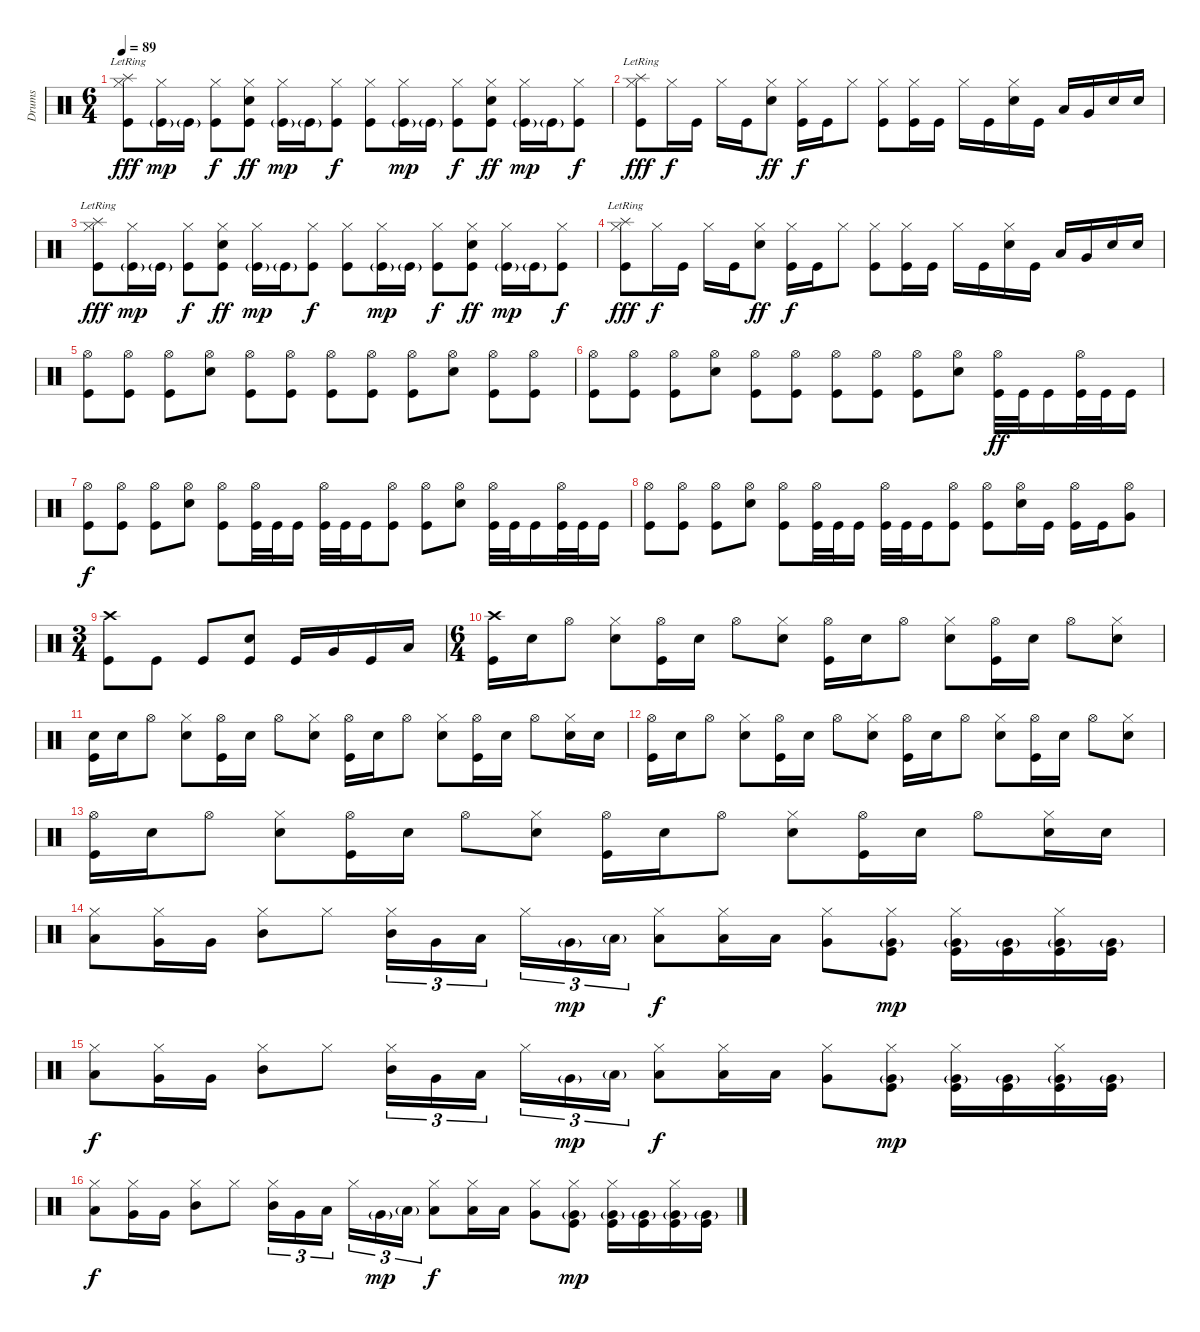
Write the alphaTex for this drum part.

\track ("Drums" "Drums") {instrument percussion}
\staff {score}
\articulation defaults
\ts (6 4)
\tempo 89
\clef neutral
\ks c
("Splash (hit)"{lr} "Hi-Hat (closed)" "Kick (hit)").8{dy fff} ("Hi-Hat (closed)" "Kick (hit)"{g}).16{dy mp} "Kick (hit)"{g}.16 ("Hi-Hat (closed)" "Kick (hit)").8{dy f} ("Hi-Hat (closed)" "Snare (hit) 2" "Kick (hit)").8{dy ff} ("Hi-Hat (closed)" "Kick (hit)"{g}).16{dy mp} "Kick (hit)"{g}.16 ("Hi-Hat (closed)" "Kick (hit)").8{dy f} ("Hi-Hat (closed)" "Kick (hit)").8 ("Hi-Hat (closed)" "Kick (hit)"{g}).16{dy mp} "Kick (hit)"{g}.16 ("Hi-Hat (closed)" "Kick (hit)").8{dy f} ("Hi-Hat (closed)" "Snare (hit) 2" "Kick (hit)").8{dy ff} ("Hi-Hat (closed)" "Kick (hit)"{g}).16{dy mp} "Kick (hit)"{g}.16 ("Hi-Hat (closed)" "Kick (hit)").8{dy f} |
("Splash (hit)"{lr} "Hi-Hat (closed)" "Kick (hit)").8{dy fff} "Hi-Hat (closed)".16{dy f} "Kick (hit)".16 "Hi-Hat (closed)".16 "Kick (hit)".16 ("Hi-Hat (closed)" "Snare (hit) 2").8{dy ff} ("Hi-Hat (closed)" "Kick (hit)").16{dy f} "Kick (hit)".16 "Hi-Hat (closed)".8 ("Hi-Hat (closed)" "Kick (hit)").8 ("Hi-Hat (closed)" "Kick (hit)").16 "Kick (hit)".16 "Hi-Hat (closed)".16 "Kick (hit)".16 ("Hi-Hat (closed)" "Snare (hit) 2").16 "Kick (hit)".16 "Low Tom (hit)".16 "Very Low Tom (hit)".16 "Snare (hit) 2".16 "Snare (hit) 2".16 |
("Splash (hit)"{lr} "Hi-Hat (closed)" "Kick (hit)").8{dy fff} ("Hi-Hat (closed)" "Kick (hit)"{g}).16{dy mp} "Kick (hit)"{g}.16 ("Hi-Hat (closed)" "Kick (hit)").8{dy f} ("Hi-Hat (closed)" "Snare (hit) 2" "Kick (hit)").8{dy ff} ("Hi-Hat (closed)" "Kick (hit)"{g}).16{dy mp} "Kick (hit)"{g}.16 ("Hi-Hat (closed)" "Kick (hit)").8{dy f} ("Hi-Hat (closed)" "Kick (hit)").8 ("Hi-Hat (closed)" "Kick (hit)"{g}).16{dy mp} "Kick (hit)"{g}.16 ("Hi-Hat (closed)" "Kick (hit)").8{dy f} ("Hi-Hat (closed)" "Snare (hit) 2" "Kick (hit)").8{dy ff} ("Hi-Hat (closed)" "Kick (hit)"{g}).16{dy mp} "Kick (hit)"{g}.16 ("Hi-Hat (closed)" "Kick (hit)").8{dy f} |
("Splash (hit)"{lr} "Hi-Hat (closed)" "Kick (hit)").8{dy fff} "Hi-Hat (closed)".16{dy f} "Kick (hit)".16 "Hi-Hat (closed)".16 "Kick (hit)".16 ("Hi-Hat (closed)" "Snare (hit) 2").8{dy ff} ("Hi-Hat (closed)" "Kick (hit)").16{dy f} "Kick (hit)".16 "Hi-Hat (closed)".8 ("Hi-Hat (closed)" "Kick (hit)").8 ("Hi-Hat (closed)" "Kick (hit)").16 "Kick (hit)".16 "Hi-Hat (closed)".16 "Kick (hit)".16 ("Hi-Hat (closed)" "Snare (hit) 2").16 "Kick (hit)".16 "Low Tom (hit)".16 "Very Low Tom (hit)".16 "Snare (hit) 2".16 "Snare (hit) 2".16 |
("Hi-Hat (open)" "Kick (hit)").8 ("Hi-Hat (open)" "Kick (hit)").8 ("Hi-Hat (open)" "Kick (hit)").8 ("Hi-Hat (open)" "Snare (hit) 2").8 ("Hi-Hat (open)" "Kick (hit)").8 ("Hi-Hat (open)" "Kick (hit)").8 ("Hi-Hat (open)" "Kick (hit)").8 ("Hi-Hat (open)" "Kick (hit)").8 ("Hi-Hat (open)" "Kick (hit)").8 ("Hi-Hat (open)" "Snare (hit) 2").8 ("Hi-Hat (open)" "Kick (hit)").8 ("Hi-Hat (open)" "Kick (hit)").8 |
("Hi-Hat (open)" "Kick (hit)").8 ("Hi-Hat (open)" "Kick (hit)").8 ("Hi-Hat (open)" "Kick (hit)").8 ("Hi-Hat (open)" "Snare (hit) 2").8 ("Hi-Hat (open)" "Kick (hit)").8 ("Hi-Hat (open)" "Kick (hit)").8 ("Hi-Hat (open)" "Kick (hit)").8 ("Hi-Hat (open)" "Kick (hit)").8 ("Hi-Hat (open)" "Kick (hit)").8 ("Hi-Hat (open)" "Snare (hit) 2").8 ("Hi-Hat (open)" "Kick (hit)").32{dy ff} "Kick (hit)".32 "Kick (hit)".16 ("Hi-Hat (open)" "Kick (hit)").32 "Kick (hit)".32 "Kick (hit)".16 |
("Hi-Hat (open)" "Kick (hit)").8{dy f} ("Hi-Hat (open)" "Kick (hit)").8 ("Hi-Hat (open)" "Kick (hit)").8 ("Hi-Hat (open)" "Snare (hit) 2").8 ("Hi-Hat (open)" "Kick (hit)").8 ("Hi-Hat (open)" "Kick (hit)").32 "Kick (hit)".32 "Kick (hit)".16 ("Hi-Hat (open)" "Kick (hit)").32 "Kick (hit)".32 "Kick (hit)".16 ("Hi-Hat (open)" "Kick (hit)").8 ("Hi-Hat (open)" "Kick (hit)").8 ("Hi-Hat (open)" "Snare (hit) 2").8 ("Hi-Hat (open)" "Kick (hit)").32 "Kick (hit)".32 "Kick (hit)".16 ("Hi-Hat (open)" "Kick (hit)").32 "Kick (hit)".32 "Kick (hit)".16 |
("Hi-Hat (open)" "Kick (hit)").8 ("Hi-Hat (open)" "Kick (hit)").8 ("Hi-Hat (open)" "Kick (hit)").8 ("Hi-Hat (open)" "Snare (hit) 2").8 ("Hi-Hat (open)" "Kick (hit)").8 ("Hi-Hat (open)" "Kick (hit)").32 "Kick (hit)".32 "Kick (hit)".16 ("Hi-Hat (open)" "Kick (hit)").32 "Kick (hit)".32 "Kick (hit)".16 ("Hi-Hat (open)" "Kick (hit)").8 ("Hi-Hat (open)" "Kick (hit)").8 ("Hi-Hat (open)" "Snare (hit) 2").16 "Kick (hit)".16 ("Hi-Hat (open)" "Kick (hit)").16 "Kick (hit)".16 ("Very Low Tom (hit)" "Hi-Hat (open)").8 |
\ts (3 4)
("Crash high (hit)" "Kick (hit)").8 "Kick (hit)".8 "Kick (hit)".8 ("Snare (hit) 2" "Kick (hit)").8 "Kick (hit)".16 "Very Low Tom (hit)".16 "Kick (hit)".16 "Low Tom (hit)".16 |
\ts (6 4)
("Crash high (hit)" "Kick (hit)").16 "Snare (hit) 2".16 "Hi-Hat (open)".8 ("Hi-Hat (closed)" "Snare (hit) 2").8 ("Hi-Hat (open)" "Kick (hit)").16 "Snare (hit) 2".16 "Hi-Hat (open)".8 ("Hi-Hat (closed)" "Snare (hit) 2").8 ("Hi-Hat (open)" "Kick (hit)").16 "Snare (hit) 2".16 "Hi-Hat (open)".8 ("Hi-Hat (closed)" "Snare (hit) 2").8 ("Hi-Hat (open)" "Kick (hit)").16 "Snare (hit) 2".16 "Hi-Hat (open)".8 ("Hi-Hat (closed)" "Snare (hit) 2").8 |
("Snare (hit)" "Kick (hit)").16 "Snare (hit) 2".16 "Hi-Hat (open)".8 ("Hi-Hat (closed)" "Snare (hit) 2").8 ("Hi-Hat (open)" "Kick (hit)").16 "Snare (hit) 2".16 "Hi-Hat (open)".8 ("Hi-Hat (closed)" "Snare (hit) 2").8 ("Hi-Hat (open)" "Kick (hit)").16 "Snare (hit) 2".16 "Hi-Hat (open)".8 ("Hi-Hat (closed)" "Snare (hit) 2").8 ("Hi-Hat (open)" "Kick (hit)").16 "Snare (hit) 2".16 "Hi-Hat (open)".8 ("Hi-Hat (closed)" "Snare (hit) 2").16 "Snare (hit) 2".16 |
("Hi-Hat (open)" "Kick (hit)").16 "Snare (hit) 2".16 "Hi-Hat (open)".8 ("Hi-Hat (closed)" "Snare (hit) 2").8 ("Hi-Hat (open)" "Kick (hit)").16 "Snare (hit) 2".16 "Hi-Hat (open)".8 ("Hi-Hat (closed)" "Snare (hit) 2").8 ("Hi-Hat (open)" "Kick (hit)").16 "Snare (hit) 2".16 "Hi-Hat (open)".8 ("Hi-Hat (closed)" "Snare (hit) 2").8 ("Hi-Hat (open)" "Kick (hit)").16 "Snare (hit) 2".16 "Hi-Hat (open)".8 ("Hi-Hat (closed)" "Snare (hit) 2").8 |
("Hi-Hat (open)" "Kick (hit)").16 "Snare (hit) 2".16 "Hi-Hat (open)".8 ("Hi-Hat (closed)" "Snare (hit) 2").8 ("Hi-Hat (open)" "Kick (hit)").16 "Snare (hit) 2".16 "Hi-Hat (open)".8 ("Hi-Hat (closed)" "Snare (hit) 2").8 ("Hi-Hat (open)" "Kick (hit)").16 "Snare (hit) 2".16 "Hi-Hat (open)".8 ("Hi-Hat (closed)" "Snare (hit) 2").8 ("Hi-Hat (open)" "Kick (hit)").16 "Snare (hit) 2".16 "Hi-Hat (open)".8 ("Hi-Hat (closed)" "Snare (hit) 2").16 "Snare (hit) 2".16 |
("Low Tom (hit)" "Hi-Hat (closed)").8 ("Very Low Tom (hit)" "Hi-Hat (closed)").16 "Very Low Tom (hit)".16 ("Mid Tom (hit)" "Hi-Hat (closed)").8 "Hi-Hat (closed)".8 ("Mid Tom (hit)" "Hi-Hat (closed)").16{tu (3 2)} "Very Low Tom (hit)".16{tu (3 2)} "Low Tom (hit)".16{tu (3 2)} "Hi-Hat (closed)".16{tu (3 2)} "Very Low Tom (hit)"{g}.16{tu (3 2) dy mp} "Low Tom (hit)"{g}.16{tu (3 2)} ("Low Tom (hit)" "Hi-Hat (closed)").8{dy f} ("Low Tom (hit)" "Hi-Hat (closed)").16 "Low Tom (hit)".16 ("Very Low Tom (hit)" "Hi-Hat (closed)").8 ("Very Low Tom (hit)"{g} "Hi-Hat (closed)" "Kick (hit)").8{dy mp} ("Very Low Tom (hit)"{g} "Hi-Hat (closed)" "Kick (hit)").16 ("Very Low Tom (hit)"{g} "Kick (hit)").16 ("Very Low Tom (hit)"{g} "Hi-Hat (closed)" "Kick (hit)").16 ("Very Low Tom (hit)"{g} "Kick (hit)").16 |
("Low Tom (hit)" "Hi-Hat (closed)").8{dy f} ("Very Low Tom (hit)" "Hi-Hat (closed)").16 "Very Low Tom (hit)".16 ("Mid Tom (hit)" "Hi-Hat (closed)").8 "Hi-Hat (closed)".8 ("Mid Tom (hit)" "Hi-Hat (closed)").16{tu (3 2)} "Very Low Tom (hit)".16{tu (3 2)} "Low Tom (hit)".16{tu (3 2)} "Hi-Hat (closed)".16{tu (3 2)} "Very Low Tom (hit)"{g}.16{tu (3 2) dy mp} "Low Tom (hit)"{g}.16{tu (3 2)} ("Low Tom (hit)" "Hi-Hat (closed)").8{dy f} ("Low Tom (hit)" "Hi-Hat (closed)").16 "Low Tom (hit)".16 ("Very Low Tom (hit)" "Hi-Hat (closed)").8 ("Very Low Tom (hit)"{g} "Hi-Hat (closed)" "Kick (hit)").8{dy mp} ("Very Low Tom (hit)"{g} "Hi-Hat (closed)" "Kick (hit)").16 ("Very Low Tom (hit)"{g} "Kick (hit)").16 ("Very Low Tom (hit)"{g} "Hi-Hat (closed)" "Kick (hit)").16 ("Very Low Tom (hit)"{g} "Kick (hit)").16 |
("Low Tom (hit)" "Hi-Hat (closed)").8{dy f} ("Very Low Tom (hit)" "Hi-Hat (closed)").16 "Very Low Tom (hit)".16 ("Mid Tom (hit)" "Hi-Hat (closed)").8 "Hi-Hat (closed)".8 ("Mid Tom (hit)" "Hi-Hat (closed)").16{tu (3 2)} "Very Low Tom (hit)".16{tu (3 2)} "Low Tom (hit)".16{tu (3 2)} "Hi-Hat (closed)".16{tu (3 2)} "Very Low Tom (hit)"{g}.16{tu (3 2) dy mp} "Low Tom (hit)"{g}.16{tu (3 2)} ("Low Tom (hit)" "Hi-Hat (closed)").8{dy f} ("Low Tom (hit)" "Hi-Hat (closed)").16 "Low Tom (hit)".16 ("Very Low Tom (hit)" "Hi-Hat (closed)").8 ("Very Low Tom (hit)"{g} "Hi-Hat (closed)" "Kick (hit)").8{dy mp} ("Very Low Tom (hit)"{g} "Hi-Hat (closed)" "Kick (hit)").16 ("Very Low Tom (hit)"{g} "Kick (hit)").16 ("Very Low Tom (hit)"{g} "Hi-Hat (closed)" "Kick (hit)").16 ("Very Low Tom (hit)"{g} "Kick (hit)").16
